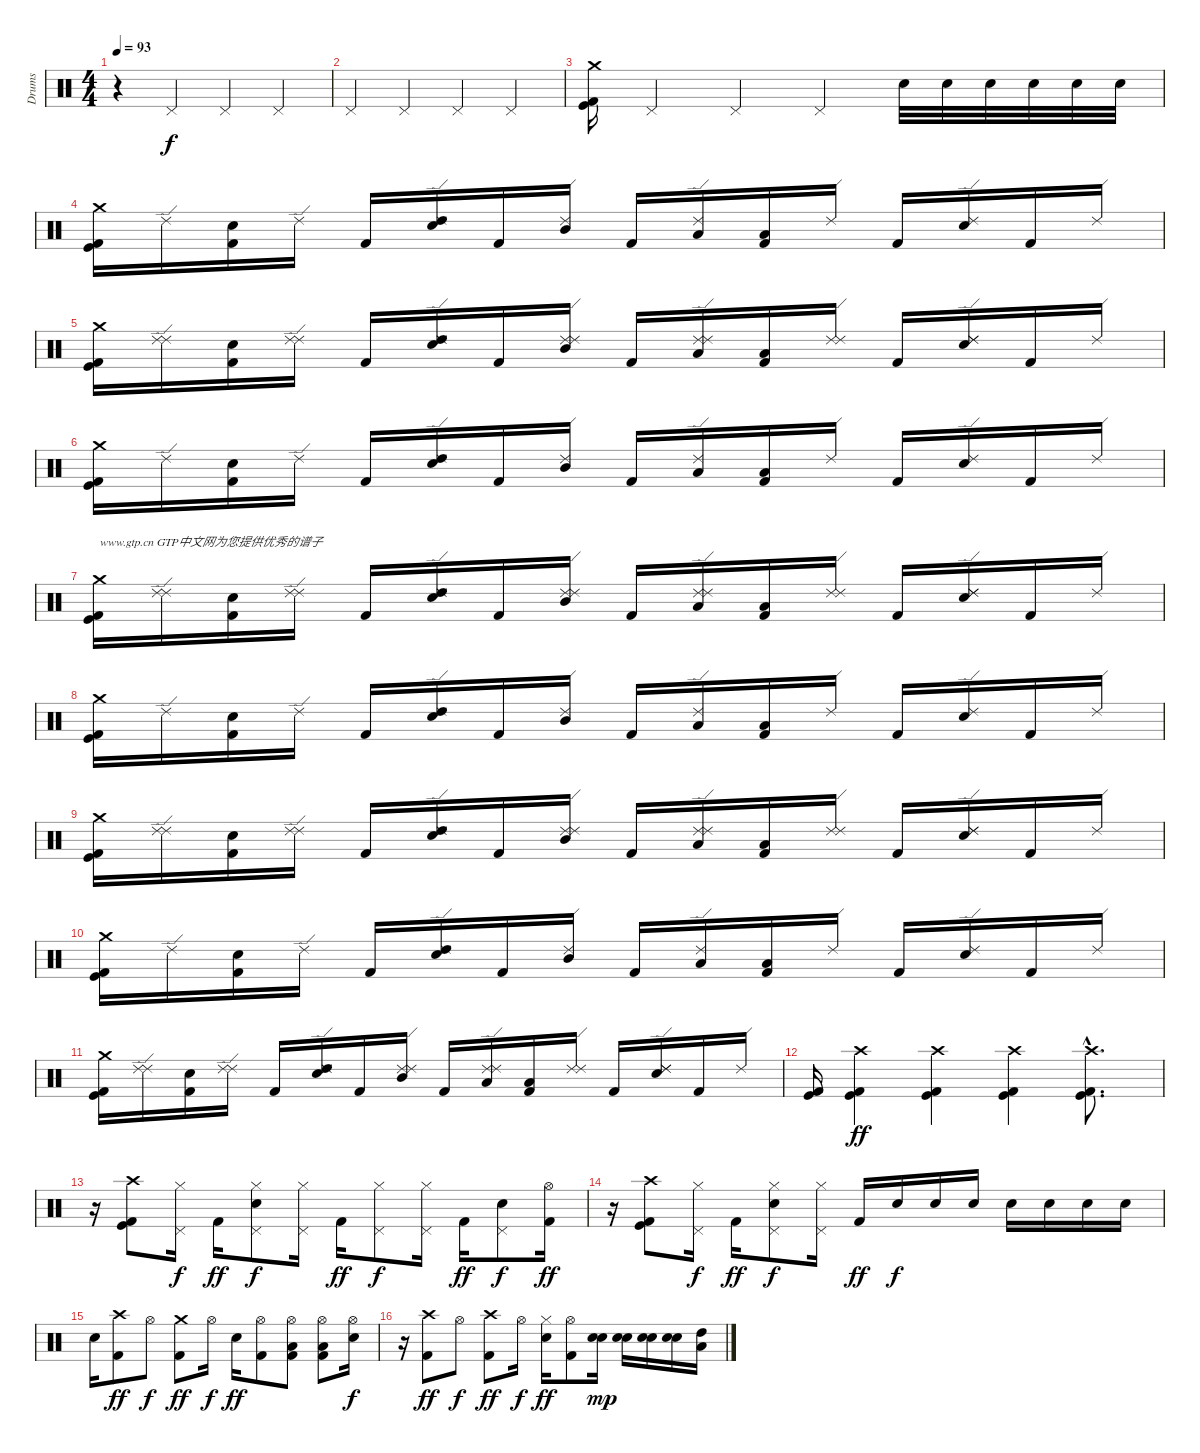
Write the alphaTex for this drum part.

\track ("Drums" "Drums") {instrument percussion}
\staff {score}
\articulation defaults
\ts (4 4)
\tempo 93
\clef neutral
\ks c
r.4{dy f} "Pedal Hi-Hat (hit)".4 "Pedal Hi-Hat (hit)".4 "Pedal Hi-Hat (hit)".4 |
"Pedal Hi-Hat (hit)".4 "Pedal Hi-Hat (hit)".4 "Pedal Hi-Hat (hit)".4 "Pedal Hi-Hat (hit)".4 |
("Kick (hit)" "Kick (hit) 2" "Crash medium (hit)").16 "Pedal Hi-Hat (hit)".4 "Pedal Hi-Hat (hit)".4 "Pedal Hi-Hat (hit)".4 "Electric Snare (hit)".32 "Electric Snare (hit)".32 "Electric Snare (hit)".32 "Electric Snare (hit)".32 "Electric Snare (hit)".32 "Electric Snare (hit)".32 |
("Kick (hit)" "Kick (hit) 2" "Crash medium (hit)").16 "Ride (edge) 2".16 ("Electric Snare (hit)" "Kick (hit) 2").16 "Ride (edge) 2".16 "Kick (hit) 2".16 ("Ride (edge) 2" "High Tom (hit)" "Electric Snare (hit)").16 "Kick (hit) 2".16 ("Ride (edge) 2" "Mid Tom (hit)").16 "Kick (hit) 2".16 ("Low Tom (hit)" "Ride (edge) 2").16 ("Low Tom (hit)" "Kick (hit) 2").16 "Ride (edge) 2".16 "Kick (hit) 2".16 ("Electric Snare (hit)" "Ride (edge) 2").16 "Kick (hit) 2".16 "Ride (edge) 2".16 |
("Kick (hit)" "Kick (hit) 2" "Crash medium (hit)").16 ("Ride (edge) 2" "Ride (edge) 2").16 ("Electric Snare (hit)" "Kick (hit) 2").16 ("Ride (edge) 2" "Ride (edge) 2").16 "Kick (hit) 2".16 ("Ride (edge) 2" "Ride (edge) 2" "High Tom (hit)" "Electric Snare (hit)").16 "Kick (hit) 2".16 ("Ride (edge) 2" "Ride (edge) 2" "Mid Tom (hit)").16 "Kick (hit) 2".16 ("Low Tom (hit)" "Ride (edge) 2" "Ride (edge) 2").16 ("Low Tom (hit)" "Kick (hit) 2").16 ("Ride (edge) 2" "Ride (edge) 2").16 "Kick (hit) 2".16 ("Ride (edge) 2" "Electric Snare (hit)" "Ride (edge) 2").16 "Kick (hit) 2".16 "Ride (edge) 2".16 |
("Kick (hit)" "Kick (hit) 2" "Crash medium (hit)").16 "Ride (edge) 2".16 ("Electric Snare (hit)" "Kick (hit) 2").16 "Ride (edge) 2".16 "Kick (hit) 2".16 ("Ride (edge) 2" "High Tom (hit)" "Electric Snare (hit)").16 "Kick (hit) 2".16 ("Ride (edge) 2" "Mid Tom (hit)").16 "Kick (hit) 2".16 ("Low Tom (hit)" "Ride (edge) 2").16 ("Low Tom (hit)" "Kick (hit) 2").16 "Ride (edge) 2".16 "Kick (hit) 2".16 ("Electric Snare (hit)" "Ride (edge) 2").16 "Kick (hit) 2".16 "Ride (edge) 2".16 |
("Kick (hit)" "Kick (hit) 2" "Crash medium (hit)").16{txt "www.gtp.cn GTP中文网为您提供优秀的谱子"} ("Ride (edge) 2" "Ride (edge) 2").16 ("Electric Snare (hit)" "Kick (hit) 2").16 ("Ride (edge) 2" "Ride (edge) 2").16 "Kick (hit) 2".16 ("Ride (edge) 2" "Ride (edge) 2" "High Tom (hit)" "Electric Snare (hit)").16 "Kick (hit) 2".16 ("Ride (edge) 2" "Ride (edge) 2" "Mid Tom (hit)").16 "Kick (hit) 2".16 ("Low Tom (hit)" "Ride (edge) 2" "Ride (edge) 2").16 ("Low Tom (hit)" "Kick (hit) 2").16 ("Ride (edge) 2" "Ride (edge) 2").16 "Kick (hit) 2".16 ("Ride (edge) 2" "Electric Snare (hit)" "Ride (edge) 2").16 "Kick (hit) 2".16 "Ride (edge) 2".16 |
("Kick (hit)" "Kick (hit) 2" "Crash medium (hit)").16 "Ride (edge) 2".16 ("Electric Snare (hit)" "Kick (hit) 2").16 "Ride (edge) 2".16 "Kick (hit) 2".16 ("Ride (edge) 2" "High Tom (hit)" "Electric Snare (hit)").16 "Kick (hit) 2".16 ("Ride (edge) 2" "Mid Tom (hit)").16 "Kick (hit) 2".16 ("Low Tom (hit)" "Ride (edge) 2").16 ("Low Tom (hit)" "Kick (hit) 2").16 "Ride (edge) 2".16 "Kick (hit) 2".16 ("Electric Snare (hit)" "Ride (edge) 2").16 "Kick (hit) 2".16 "Ride (edge) 2".16 |
("Kick (hit)" "Kick (hit) 2" "Crash medium (hit)").16 ("Ride (edge) 2" "Ride (edge) 2").16 ("Electric Snare (hit)" "Kick (hit) 2").16 ("Ride (edge) 2" "Ride (edge) 2").16 "Kick (hit) 2".16 ("Ride (edge) 2" "Ride (edge) 2" "High Tom (hit)" "Electric Snare (hit)").16 "Kick (hit) 2".16 ("Ride (edge) 2" "Ride (edge) 2" "Mid Tom (hit)").16 "Kick (hit) 2".16 ("Low Tom (hit)" "Ride (edge) 2" "Ride (edge) 2").16 ("Low Tom (hit)" "Kick (hit) 2").16 ("Ride (edge) 2" "Ride (edge) 2").16 "Kick (hit) 2".16 ("Ride (edge) 2" "Electric Snare (hit)" "Ride (edge) 2").16 "Kick (hit) 2".16 "Ride (edge) 2".16 |
("Kick (hit)" "Kick (hit) 2" "Crash medium (hit)").16 "Ride (edge) 2".16 ("Electric Snare (hit)" "Kick (hit) 2").16 "Ride (edge) 2".16 "Kick (hit) 2".16 ("Ride (edge) 2" "High Tom (hit)" "Electric Snare (hit)").16 "Kick (hit) 2".16 ("Ride (edge) 2" "Mid Tom (hit)").16 "Kick (hit) 2".16 ("Low Tom (hit)" "Ride (edge) 2").16 ("Low Tom (hit)" "Kick (hit) 2").16 "Ride (edge) 2".16 "Kick (hit) 2".16 ("Electric Snare (hit)" "Ride (edge) 2").16 "Kick (hit) 2".16 "Ride (edge) 2".16 |
("Kick (hit)" "Kick (hit) 2" "Crash medium (hit)").16 ("Ride (edge) 2" "Ride (edge) 2").16 ("Electric Snare (hit)" "Kick (hit) 2").16 ("Ride (edge) 2" "Ride (edge) 2").16 "Kick (hit) 2".16 ("Ride (edge) 2" "Ride (edge) 2" "High Tom (hit)" "Electric Snare (hit)").16 "Kick (hit) 2".16 ("Ride (edge) 2" "Ride (edge) 2" "Mid Tom (hit)").16 "Kick (hit) 2".16 ("Low Tom (hit)" "Ride (edge) 2" "Ride (edge) 2").16 ("Low Tom (hit)" "Kick (hit) 2").16 ("Ride (edge) 2" "Ride (edge) 2").16 "Kick (hit) 2".16 ("Ride (edge) 2" "Electric Snare (hit)" "Ride (edge) 2").16 "Kick (hit) 2".16 "Ride (edge) 2".16 |
("Kick (hit) 2" "Kick (hit)").16 ("Kick (hit)" "Kick (hit) 2" "Crash high (hit)").4{dy ff} ("Kick (hit)" "Kick (hit) 2" "Crash high (hit)").4 ("Kick (hit)" "Kick (hit) 2" "Crash high (hit)").4 ("Kick (hit)"{hac} "Kick (hit) 2"{hac} "Crash high (hit)"{hac}).8{d} |
r.16 ("Kick (hit) 2" "Kick (hit)" "Crash high (hit)").8 ("Pedal Hi-Hat (hit)" "Hi-Hat (closed)").16{dy f} "Kick (hit) 2".16{dy ff} ("Electric Snare (hit)" "Hi-Hat (closed)" "Pedal Hi-Hat (hit)").8{dy f} ("Hi-Hat (closed)" "Pedal Hi-Hat (hit)").16 "Kick (hit) 2".16{dy ff} ("Hi-Hat (closed)" "Pedal Hi-Hat (hit)").8{dy f} ("Hi-Hat (closed)" "Pedal Hi-Hat (hit)").16 "Kick (hit) 2".16{dy ff} ("Pedal Hi-Hat (hit)" "Electric Snare (hit)").8{dy f} ("Kick (hit) 2" "Hi-Hat (open)").16{dy ff} |
r.16 ("Crash high (hit)" "Kick (hit) 2" "Kick (hit)").8 ("Hi-Hat (closed)" "Pedal Hi-Hat (hit)").16{dy f} "Kick (hit) 2".16{dy ff} ("Hi-Hat (closed)" "Pedal Hi-Hat (hit)" "Electric Snare (hit)").8{dy f} ("Hi-Hat (closed)" "Pedal Hi-Hat (hit)").16 "Kick (hit) 2".16{dy ff} "Electric Snare (hit)".16{dy f} "Electric Snare (hit)".16 "Electric Snare (hit)".16 "Electric Snare (hit)".16 "Electric Snare (hit)".16 "Electric Snare (hit)".16 "Electric Snare (hit)".16 |
"Electric Snare (hit)".16 ("Crash high (hit)" "Kick (hit) 2").8{dy ff} "Hi-Hat (open)".8{dy f} ("Crash medium (hit)" "Kick (hit) 2").8{dy ff} "Hi-Hat (open)".16{dy f} "Electric Snare (hit)".16{dy ff} ("Kick (hit) 2" "Hi-Hat (open)").8 ("Hi-Hat (open)" "Low Tom (hit)" "Kick (hit) 2").8 ("Hi-Hat (open)" "Low Floor Tom (hit)" "Kick (hit) 2").8 ("Hi-Hat (open)" "Electric Snare (hit)").16{dy f} |
r.16 ("Kick (hit) 2" "Crash high (hit)").8{dy ff} "Hi-Hat (open)".8{dy f} ("Kick (hit) 2" "Crash high (hit)").8{dy ff} "Hi-Hat (open)".16{dy f} ("Hi-Hat (closed)" "Electric Snare (hit)").16{dy ff} ("Kick (hit) 2" "Hi-Hat (open)").8 ("Electric Snare (hit)" "Snare (hit) 2").16{dy mp} ("Electric Snare (hit)" "Snare (hit) 2").16 ("Electric Snare (hit)" "Snare (hit) 2").16 ("Electric Snare (hit)" "Snare (hit) 2").16 ("High Tom (hit)" "Low Tom (hit)").16
